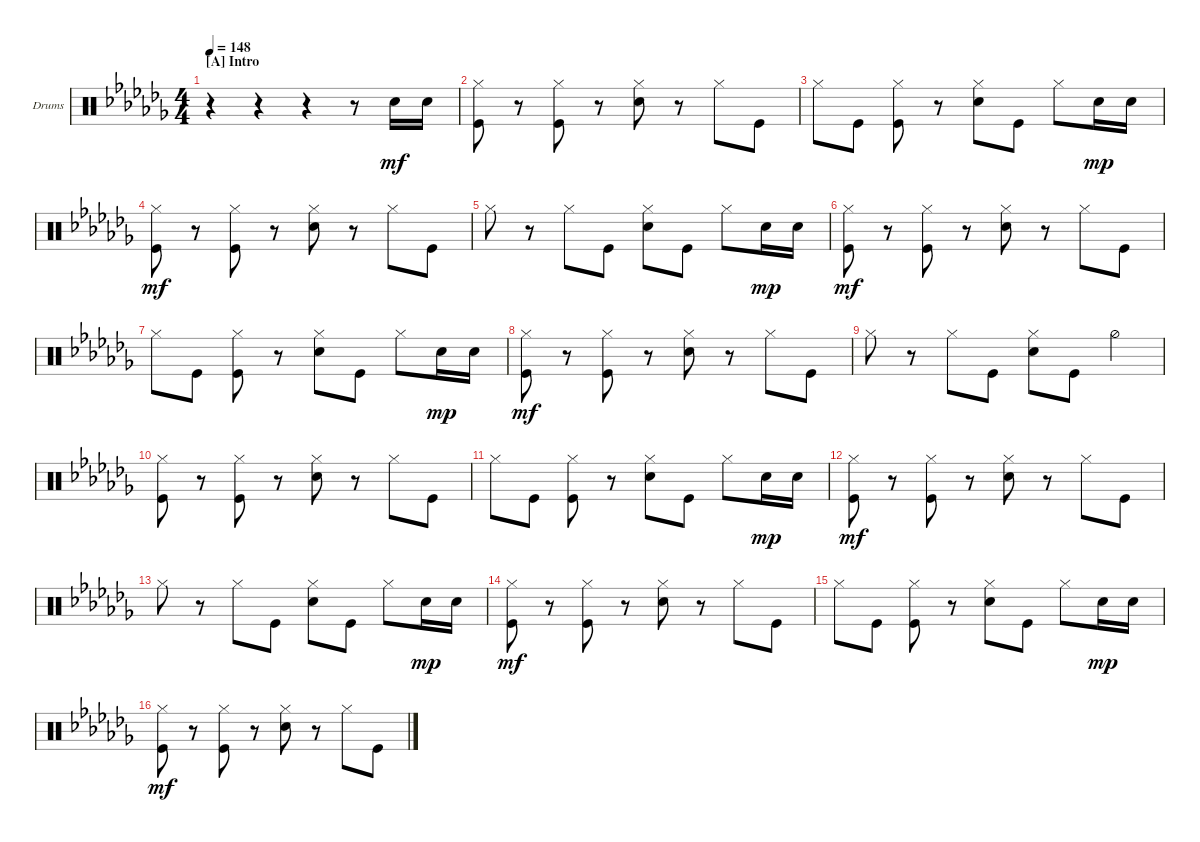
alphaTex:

\defaultSystemsLayout 4
\bracketExtendMode groupsimilarinstruments
\firstSystemTrackNameOrientation horizontal
\otherSystemsTrackNameOrientation horizontal
\track ("Drumkit" "Drums") {instrument percussion}
\staff {score}
\articulation defaults
\ts (4 4)
\section ("A" "Intro")
\tempo 148
\clef neutral
\ks abminor
r.4{dy mf} r.4 r.4 r.8 "Snare (hit) 2".16 "Snare (hit) 2".16 |
("Kick (hit)" "Hi-Hat (closed)").8 r.8 ("Kick (hit)" "Hi-Hat (closed)").8 r.8 ("Snare (hit) 2" "Hi-Hat (closed)").8 r.8 "Hi-Hat (closed)".8 "Kick (hit)".8 |
"Hi-Hat (closed)".8 "Kick (hit)".8 ("Kick (hit)" "Hi-Hat (closed)").8 r.8 ("Snare (hit) 2" "Hi-Hat (closed)").8 "Kick (hit)".8 "Hi-Hat (closed)".8 "Snare (hit) 2".16{dy mp} "Snare (hit) 2".16 |
("Kick (hit)" "Hi-Hat (closed)").8{dy mf} r.8 ("Kick (hit)" "Hi-Hat (closed)").8 r.8 ("Snare (hit) 2" "Hi-Hat (closed)").8 r.8 "Hi-Hat (closed)".8 "Kick (hit)".8 |
"Hi-Hat (closed)".8 r.8 "Hi-Hat (closed)".8 "Kick (hit)".8 ("Snare (hit) 2" "Hi-Hat (closed)").8 "Kick (hit)".8 "Hi-Hat (closed)".8 "Snare (hit) 2".16{dy mp} "Snare (hit) 2".16 |
("Kick (hit)" "Hi-Hat (closed)").8{dy mf} r.8 ("Kick (hit)" "Hi-Hat (closed)").8 r.8 ("Snare (hit) 2" "Hi-Hat (closed)").8 r.8 "Hi-Hat (closed)".8 "Kick (hit)".8 |
"Hi-Hat (closed)".8 "Kick (hit)".8 ("Kick (hit)" "Hi-Hat (closed)").8 r.8 ("Snare (hit) 2" "Hi-Hat (closed)").8 "Kick (hit)".8 "Hi-Hat (closed)".8 "Snare (hit) 2".16{dy mp} "Snare (hit) 2".16 |
("Kick (hit)" "Hi-Hat (closed)").8{dy mf} r.8 ("Kick (hit)" "Hi-Hat (closed)").8 r.8 ("Snare (hit) 2" "Hi-Hat (closed)").8 r.8 "Hi-Hat (closed)".8 "Kick (hit)".8 |
"Hi-Hat (closed)".8 r.8 "Hi-Hat (closed)".8 "Kick (hit)".8 ("Snare (hit) 2" "Hi-Hat (closed)").8 "Kick (hit)".8 "Hi-Hat (half)".4 |
("Kick (hit)" "Hi-Hat (closed)").8 r.8 ("Kick (hit)" "Hi-Hat (closed)").8 r.8 ("Snare (hit) 2" "Hi-Hat (closed)").8 r.8 "Hi-Hat (closed)".8 "Kick (hit)".8 |
"Hi-Hat (closed)".8 "Kick (hit)".8 ("Kick (hit)" "Hi-Hat (closed)").8 r.8 ("Snare (hit) 2" "Hi-Hat (closed)").8 "Kick (hit)".8 "Hi-Hat (closed)".8 "Snare (hit) 2".16{dy mp} "Snare (hit) 2".16 |
("Kick (hit)" "Hi-Hat (closed)").8{dy mf} r.8 ("Kick (hit)" "Hi-Hat (closed)").8 r.8 ("Snare (hit) 2" "Hi-Hat (closed)").8 r.8 "Hi-Hat (closed)".8 "Kick (hit)".8 |
"Hi-Hat (closed)".8 r.8 "Hi-Hat (closed)".8 "Kick (hit)".8 ("Snare (hit) 2" "Hi-Hat (closed)").8 "Kick (hit)".8 "Hi-Hat (closed)".8 "Snare (hit) 2".16{dy mp} "Snare (hit) 2".16 |
("Kick (hit)" "Hi-Hat (closed)").8{dy mf} r.8 ("Kick (hit)" "Hi-Hat (closed)").8 r.8 ("Snare (hit) 2" "Hi-Hat (closed)").8 r.8 "Hi-Hat (closed)".8 "Kick (hit)".8 |
"Hi-Hat (closed)".8 "Kick (hit)".8 ("Kick (hit)" "Hi-Hat (closed)").8 r.8 ("Snare (hit) 2" "Hi-Hat (closed)").8 "Kick (hit)".8 "Hi-Hat (closed)".8 "Snare (hit) 2".16{dy mp} "Snare (hit) 2".16 |
("Kick (hit)" "Hi-Hat (closed)").8{dy mf} r.8 ("Kick (hit)" "Hi-Hat (closed)").8 r.8 ("Snare (hit) 2" "Hi-Hat (closed)").8 r.8 "Hi-Hat (closed)".8 "Kick (hit)".8
